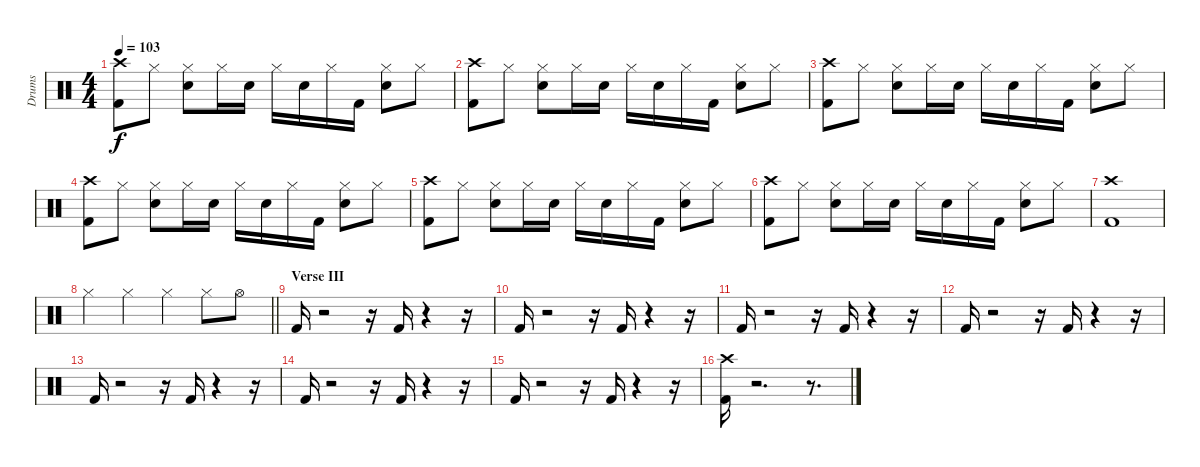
\track ("Drums" "Drums") {instrument percussion}
\staff {score}
\articulation defaults
\ts (4 4)
\tempo 103
\clef neutral
\ks c
("Crash high (hit)" "Kick (hit) 2").8{dy f} "Hi-Hat (closed)".8 ("Hi-Hat (closed)" "Snare (hit) 2").8 "Hi-Hat (closed)".16 "Snare (hit) 2".16 "Hi-Hat (closed)".16 "Snare (hit) 2".16 "Hi-Hat (closed)".16 "Kick (hit) 2".16 ("Hi-Hat (closed)" "Snare (hit) 2").8 "Hi-Hat (closed)".8 |
("Crash high (hit)" "Kick (hit) 2").8 "Hi-Hat (closed)".8 ("Hi-Hat (closed)" "Snare (hit) 2").8 "Hi-Hat (closed)".16 "Snare (hit) 2".16 "Hi-Hat (closed)".16 "Snare (hit) 2".16 "Hi-Hat (closed)".16 "Kick (hit) 2".16 ("Hi-Hat (closed)" "Snare (hit) 2").8 "Hi-Hat (closed)".8 |
("Crash high (hit)" "Kick (hit) 2").8 "Hi-Hat (closed)".8 ("Hi-Hat (closed)" "Snare (hit) 2").8 "Hi-Hat (closed)".16 "Snare (hit) 2".16 "Hi-Hat (closed)".16 "Snare (hit) 2".16 "Hi-Hat (closed)".16 "Kick (hit) 2".16 ("Hi-Hat (closed)" "Snare (hit) 2").8 "Hi-Hat (closed)".8 |
("Crash high (hit)" "Kick (hit) 2").8 "Hi-Hat (closed)".8 ("Hi-Hat (closed)" "Snare (hit) 2").8 "Hi-Hat (closed)".16 "Snare (hit) 2".16 "Hi-Hat (closed)".16 "Snare (hit) 2".16 "Hi-Hat (closed)".16 "Kick (hit) 2".16 ("Hi-Hat (closed)" "Snare (hit) 2").8 "Hi-Hat (closed)".8 |
("Crash high (hit)" "Kick (hit) 2").8 "Hi-Hat (closed)".8 ("Hi-Hat (closed)" "Snare (hit) 2").8 "Hi-Hat (closed)".16 "Snare (hit) 2".16 "Hi-Hat (closed)".16 "Snare (hit) 2".16 "Hi-Hat (closed)".16 "Kick (hit) 2".16 ("Hi-Hat (closed)" "Snare (hit) 2").8 "Hi-Hat (closed)".8 |
("Crash high (hit)" "Kick (hit) 2").8 "Hi-Hat (closed)".8 ("Hi-Hat (closed)" "Snare (hit) 2").8 "Hi-Hat (closed)".16 "Snare (hit) 2".16 "Hi-Hat (closed)".16 "Snare (hit) 2".16 "Hi-Hat (closed)".16 "Kick (hit) 2".16 ("Hi-Hat (closed)" "Snare (hit) 2").8 "Hi-Hat (closed)".8 |
("Crash high (hit)" "Kick (hit) 2").1 |
\barLineRight lightlight "Hi-Hat (closed)".4 "Hi-Hat (closed)".4 "Hi-Hat (closed)".4 "Hi-Hat (closed)".8 "Hi-Hat (open)".8
|
\section ("" "Verse III")
"Kick (hit) 2".16 r.2 r.16 "Kick (hit) 2".16 r.4 r.16 |
"Kick (hit) 2".16 r.2 r.16 "Kick (hit) 2".16 r.4 r.16 |
"Kick (hit) 2".16 r.2 r.16 "Kick (hit) 2".16 r.4 r.16 |
"Kick (hit) 2".16 r.2 r.16 "Kick (hit) 2".16 r.4 r.16 |
"Kick (hit) 2".16 r.2 r.16 "Kick (hit) 2".16 r.4 r.16 |
"Kick (hit) 2".16 r.2 r.16 "Kick (hit) 2".16 r.4 r.16 |
"Kick (hit) 2".16 r.2 r.16 "Kick (hit) 2".16 r.4 r.16 |
("Crash high (hit)" "Kick (hit) 2").16 r.2{d} r.8{d}
